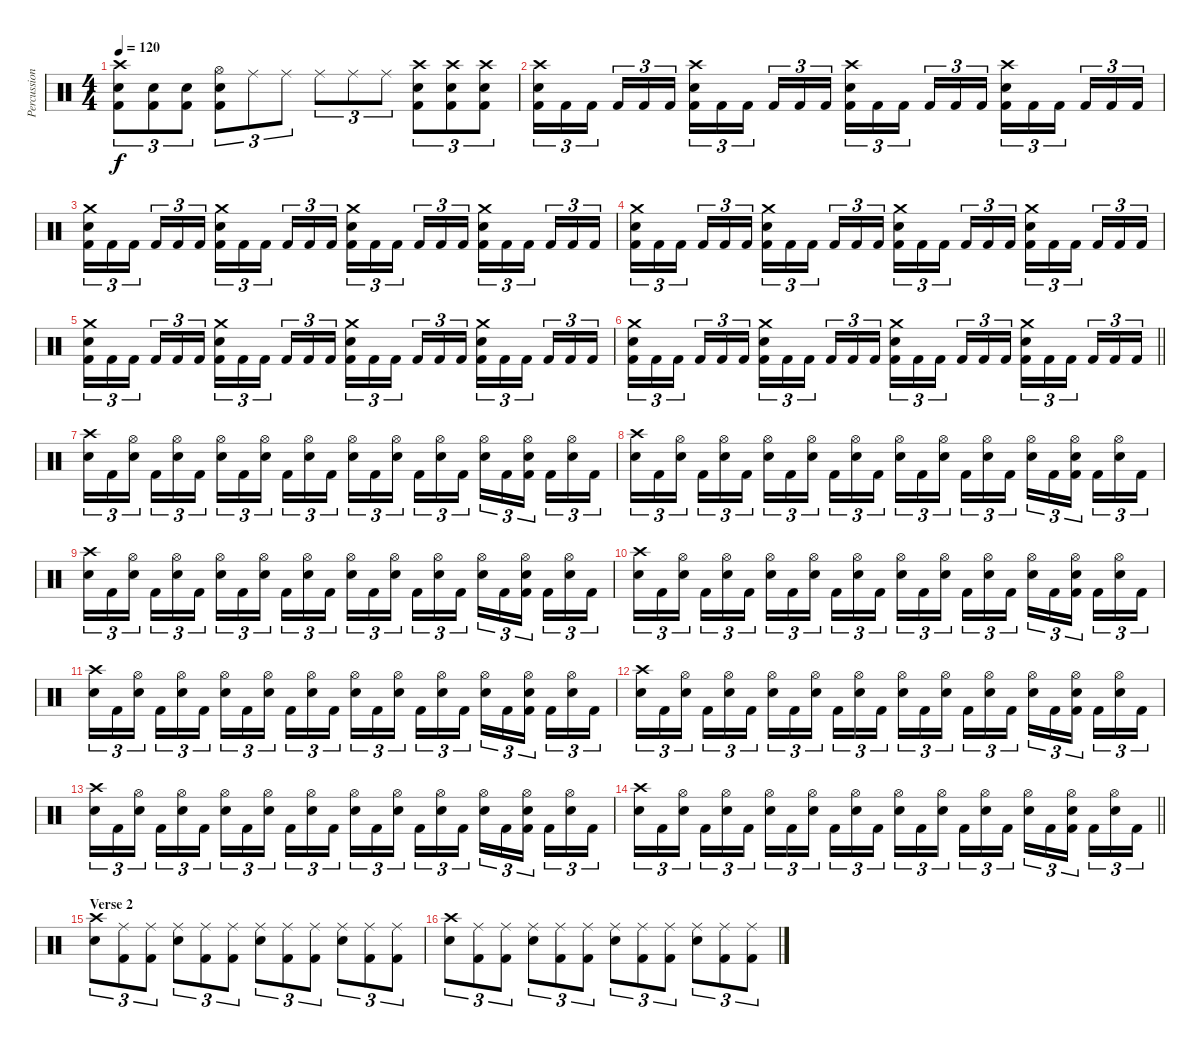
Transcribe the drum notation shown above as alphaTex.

\track ("Percussion" "Percussion") {instrument percussion}
\staff {score}
\articulation defaults
\ts (4 4)
\tempo 120
\clef neutral
\ks c
("Crash high (hit)" "Snare (hit) 2" "Kick (hit) 2").8{tu (3 2) dy f} ("Snare (hit) 2" "Kick (hit) 2").8{tu (3 2)} ("Snare (hit) 2" "Kick (hit) 2").8{tu (3 2)} ("Hi-Hat (open)" "Snare (hit) 2" "Kick (hit) 2").8{tu (3 2)} "Ride (middle)".8{tu (3 2)} "Ride (middle)".8{tu (3 2)} "Ride (middle)".8{tu (3 2)} "Ride (middle)".8{tu (3 2)} "Ride (middle)".8{tu (3 2)} ("Crash high (hit)" "Snare (hit) 2" "Kick (hit) 2").8{tu (3 2)} ("Crash high (hit)" "Snare (hit) 2" "Kick (hit) 2").8{tu (3 2)} ("Crash high (hit)" "Snare (hit) 2" "Kick (hit) 2").8{tu (3 2)} |
("Crash high (hit)" "Snare (hit) 2" "Kick (hit) 2").16{tu (3 2)} "Kick (hit) 2".16{tu (3 2)} "Kick (hit) 2".16{tu (3 2) beam splitsecondary} "Kick (hit) 2".16{tu (3 2)} "Kick (hit) 2".16{tu (3 2)} "Kick (hit) 2".16{tu (3 2)} ("Crash high (hit)" "Snare (hit) 2" "Kick (hit) 2").16{tu (3 2)} "Kick (hit) 2".16{tu (3 2)} "Kick (hit) 2".16{tu (3 2) beam splitsecondary} "Kick (hit) 2".16{tu (3 2)} "Kick (hit) 2".16{tu (3 2)} "Kick (hit) 2".16{tu (3 2)} ("Crash high (hit)" "Snare (hit) 2" "Kick (hit) 2").16{tu (3 2)} "Kick (hit) 2".16{tu (3 2)} "Kick (hit) 2".16{tu (3 2) beam splitsecondary} "Kick (hit) 2".16{tu (3 2)} "Kick (hit) 2".16{tu (3 2)} "Kick (hit) 2".16{tu (3 2)} ("Crash high (hit)" "Snare (hit) 2" "Kick (hit) 2").16{tu (3 2)} "Kick (hit) 2".16{tu (3 2)} "Kick (hit) 2".16{tu (3 2) beam splitsecondary} "Kick (hit) 2".16{tu (3 2)} "Kick (hit) 2".16{tu (3 2)} "Kick (hit) 2".16{tu (3 2)} |
("Crash medium (hit)" "Snare (hit) 2" "Kick (hit) 2").16{tu (3 2)} "Kick (hit) 2".16{tu (3 2)} "Kick (hit) 2".16{tu (3 2) beam splitsecondary} "Kick (hit) 2".16{tu (3 2)} "Kick (hit) 2".16{tu (3 2)} "Kick (hit) 2".16{tu (3 2)} ("Crash medium (hit)" "Snare (hit) 2" "Kick (hit) 2").16{tu (3 2)} "Kick (hit) 2".16{tu (3 2)} "Kick (hit) 2".16{tu (3 2) beam splitsecondary} "Kick (hit) 2".16{tu (3 2)} "Kick (hit) 2".16{tu (3 2)} "Kick (hit) 2".16{tu (3 2)} ("Crash medium (hit)" "Snare (hit) 2" "Kick (hit) 2").16{tu (3 2)} "Kick (hit) 2".16{tu (3 2)} "Kick (hit) 2".16{tu (3 2) beam splitsecondary} "Kick (hit) 2".16{tu (3 2)} "Kick (hit) 2".16{tu (3 2)} "Kick (hit) 2".16{tu (3 2)} ("Crash medium (hit)" "Snare (hit) 2" "Kick (hit) 2").16{tu (3 2)} "Kick (hit) 2".16{tu (3 2)} "Kick (hit) 2".16{tu (3 2) beam splitsecondary} "Kick (hit) 2".16{tu (3 2)} "Kick (hit) 2".16{tu (3 2)} "Kick (hit) 2".16{tu (3 2)} |
("Crash medium (hit)" "Snare (hit) 2" "Kick (hit) 2").16{tu (3 2)} "Kick (hit) 2".16{tu (3 2)} "Kick (hit) 2".16{tu (3 2) beam splitsecondary} "Kick (hit) 2".16{tu (3 2)} "Kick (hit) 2".16{tu (3 2)} "Kick (hit) 2".16{tu (3 2)} ("Crash medium (hit)" "Snare (hit) 2" "Kick (hit) 2").16{tu (3 2)} "Kick (hit) 2".16{tu (3 2)} "Kick (hit) 2".16{tu (3 2) beam splitsecondary} "Kick (hit) 2".16{tu (3 2)} "Kick (hit) 2".16{tu (3 2)} "Kick (hit) 2".16{tu (3 2)} ("Crash medium (hit)" "Snare (hit) 2" "Kick (hit) 2").16{tu (3 2)} "Kick (hit) 2".16{tu (3 2)} "Kick (hit) 2".16{tu (3 2) beam splitsecondary} "Kick (hit) 2".16{tu (3 2)} "Kick (hit) 2".16{tu (3 2)} "Kick (hit) 2".16{tu (3 2)} ("Crash medium (hit)" "Snare (hit) 2" "Kick (hit) 2").16{tu (3 2)} "Kick (hit) 2".16{tu (3 2)} "Kick (hit) 2".16{tu (3 2) beam splitsecondary} "Kick (hit) 2".16{tu (3 2)} "Kick (hit) 2".16{tu (3 2)} "Kick (hit) 2".16{tu (3 2)} |
("Crash medium (hit)" "Snare (hit) 2" "Kick (hit) 2").16{tu (3 2)} "Kick (hit) 2".16{tu (3 2)} "Kick (hit) 2".16{tu (3 2) beam splitsecondary} "Kick (hit) 2".16{tu (3 2)} "Kick (hit) 2".16{tu (3 2)} "Kick (hit) 2".16{tu (3 2)} ("Crash medium (hit)" "Snare (hit) 2" "Kick (hit) 2").16{tu (3 2)} "Kick (hit) 2".16{tu (3 2)} "Kick (hit) 2".16{tu (3 2) beam splitsecondary} "Kick (hit) 2".16{tu (3 2)} "Kick (hit) 2".16{tu (3 2)} "Kick (hit) 2".16{tu (3 2)} ("Crash medium (hit)" "Snare (hit) 2" "Kick (hit) 2").16{tu (3 2)} "Kick (hit) 2".16{tu (3 2)} "Kick (hit) 2".16{tu (3 2) beam splitsecondary} "Kick (hit) 2".16{tu (3 2)} "Kick (hit) 2".16{tu (3 2)} "Kick (hit) 2".16{tu (3 2)} ("Crash medium (hit)" "Snare (hit) 2" "Kick (hit) 2").16{tu (3 2)} "Kick (hit) 2".16{tu (3 2)} "Kick (hit) 2".16{tu (3 2) beam splitsecondary} "Kick (hit) 2".16{tu (3 2)} "Kick (hit) 2".16{tu (3 2)} "Kick (hit) 2".16{tu (3 2)} |
\barLineRight lightlight
("Crash medium (hit)" "Snare (hit) 2" "Kick (hit) 2").16{tu (3 2)} "Kick (hit) 2".16{tu (3 2)} "Kick (hit) 2".16{tu (3 2) beam splitsecondary} "Kick (hit) 2".16{tu (3 2)} "Kick (hit) 2".16{tu (3 2)} "Kick (hit) 2".16{tu (3 2)} ("Crash medium (hit)" "Snare (hit) 2" "Kick (hit) 2").16{tu (3 2)} "Kick (hit) 2".16{tu (3 2)} "Kick (hit) 2".16{tu (3 2) beam splitsecondary} "Kick (hit) 2".16{tu (3 2)} "Kick (hit) 2".16{tu (3 2)} "Kick (hit) 2".16{tu (3 2)} ("Crash medium (hit)" "Snare (hit) 2" "Kick (hit) 2").16{tu (3 2)} "Kick (hit) 2".16{tu (3 2)} "Kick (hit) 2".16{tu (3 2) beam splitsecondary} "Kick (hit) 2".16{tu (3 2)} "Kick (hit) 2".16{tu (3 2)} "Kick (hit) 2".16{tu (3 2)} ("Crash medium (hit)" "Snare (hit) 2" "Kick (hit) 2").16{tu (3 2)} "Kick (hit) 2".16{tu (3 2)} "Kick (hit) 2".16{tu (3 2) beam splitsecondary} "Kick (hit) 2".16{tu (3 2)} "Kick (hit) 2".16{tu (3 2)} "Kick (hit) 2".16{tu (3 2)} |
\section ("" "")
("Crash high (hit)" "Snare (hit) 2").16{tu (3 2)} "Kick (hit) 2".16{tu (3 2)} ("Hi-Hat (open)" "Snare (hit) 2").16{tu (3 2) beam splitsecondary} "Kick (hit) 2".16{tu (3 2)} ("Hi-Hat (open)" "Snare (hit) 2").16{tu (3 2)} "Kick (hit) 2".16{tu (3 2)} ("Hi-Hat (open)" "Snare (hit) 2").16{tu (3 2)} "Kick (hit) 2".16{tu (3 2)} ("Hi-Hat (open)" "Snare (hit) 2").16{tu (3 2) beam splitsecondary} "Kick (hit) 2".16{tu (3 2)} ("Hi-Hat (open)" "Snare (hit) 2").16{tu (3 2)} "Kick (hit) 2".16{tu (3 2)} ("Hi-Hat (open)" "Snare (hit) 2").16{tu (3 2)} "Kick (hit) 2".16{tu (3 2)} ("Hi-Hat (open)" "Snare (hit) 2").16{tu (3 2) beam splitsecondary} "Kick (hit) 2".16{tu (3 2)} ("Hi-Hat (open)" "Snare (hit) 2").16{tu (3 2)} "Kick (hit) 2".16{tu (3 2)} ("Hi-Hat (open)" "Snare (hit) 2").16{tu (3 2)} "Kick (hit) 2".16{tu (3 2)} ("Hi-Hat (open)" "Snare (hit) 2" "Kick (hit) 2").16{tu (3 2) beam splitsecondary} "Kick (hit) 2".16{tu (3 2)} ("Hi-Hat (open)" "Snare (hit) 2").16{tu (3 2)} "Kick (hit) 2".16{tu (3 2)} |
("Crash high (hit)" "Snare (hit) 2").16{tu (3 2)} "Kick (hit) 2".16{tu (3 2)} ("Hi-Hat (open)" "Snare (hit) 2").16{tu (3 2) beam splitsecondary} "Kick (hit) 2".16{tu (3 2)} ("Hi-Hat (open)" "Snare (hit) 2").16{tu (3 2)} "Kick (hit) 2".16{tu (3 2)} ("Hi-Hat (open)" "Snare (hit) 2").16{tu (3 2)} "Kick (hit) 2".16{tu (3 2)} ("Hi-Hat (open)" "Snare (hit) 2").16{tu (3 2) beam splitsecondary} "Kick (hit) 2".16{tu (3 2)} ("Hi-Hat (open)" "Snare (hit) 2").16{tu (3 2)} "Kick (hit) 2".16{tu (3 2)} ("Hi-Hat (open)" "Snare (hit) 2").16{tu (3 2)} "Kick (hit) 2".16{tu (3 2)} ("Hi-Hat (open)" "Snare (hit) 2").16{tu (3 2) beam splitsecondary} "Kick (hit) 2".16{tu (3 2)} ("Hi-Hat (open)" "Snare (hit) 2").16{tu (3 2)} "Kick (hit) 2".16{tu (3 2)} ("Hi-Hat (open)" "Snare (hit) 2").16{tu (3 2)} "Kick (hit) 2".16{tu (3 2)} ("Hi-Hat (open)" "Snare (hit) 2" "Kick (hit) 2").16{tu (3 2) beam splitsecondary} "Kick (hit) 2".16{tu (3 2)} ("Hi-Hat (open)" "Snare (hit) 2").16{tu (3 2)} "Kick (hit) 2".16{tu (3 2)} |
("Crash high (hit)" "Snare (hit) 2").16{tu (3 2)} "Kick (hit) 2".16{tu (3 2)} ("Hi-Hat (open)" "Snare (hit) 2").16{tu (3 2) beam splitsecondary} "Kick (hit) 2".16{tu (3 2)} ("Hi-Hat (open)" "Snare (hit) 2").16{tu (3 2)} "Kick (hit) 2".16{tu (3 2)} ("Hi-Hat (open)" "Snare (hit) 2").16{tu (3 2)} "Kick (hit) 2".16{tu (3 2)} ("Hi-Hat (open)" "Snare (hit) 2").16{tu (3 2) beam splitsecondary} "Kick (hit) 2".16{tu (3 2)} ("Hi-Hat (open)" "Snare (hit) 2").16{tu (3 2)} "Kick (hit) 2".16{tu (3 2)} ("Hi-Hat (open)" "Snare (hit) 2").16{tu (3 2)} "Kick (hit) 2".16{tu (3 2)} ("Hi-Hat (open)" "Snare (hit) 2").16{tu (3 2) beam splitsecondary} "Kick (hit) 2".16{tu (3 2)} ("Hi-Hat (open)" "Snare (hit) 2").16{tu (3 2)} "Kick (hit) 2".16{tu (3 2)} ("Hi-Hat (open)" "Snare (hit) 2").16{tu (3 2)} "Kick (hit) 2".16{tu (3 2)} ("Hi-Hat (open)" "Snare (hit) 2" "Kick (hit) 2").16{tu (3 2) beam splitsecondary} "Kick (hit) 2".16{tu (3 2)} ("Hi-Hat (open)" "Snare (hit) 2").16{tu (3 2)} "Kick (hit) 2".16{tu (3 2)} |
("Crash high (hit)" "Snare (hit) 2").16{tu (3 2)} "Kick (hit) 2".16{tu (3 2)} ("Hi-Hat (open)" "Snare (hit) 2").16{tu (3 2) beam splitsecondary} "Kick (hit) 2".16{tu (3 2)} ("Hi-Hat (open)" "Snare (hit) 2").16{tu (3 2)} "Kick (hit) 2".16{tu (3 2)} ("Hi-Hat (open)" "Snare (hit) 2").16{tu (3 2)} "Kick (hit) 2".16{tu (3 2)} ("Hi-Hat (open)" "Snare (hit) 2").16{tu (3 2) beam splitsecondary} "Kick (hit) 2".16{tu (3 2)} ("Hi-Hat (open)" "Snare (hit) 2").16{tu (3 2)} "Kick (hit) 2".16{tu (3 2)} ("Hi-Hat (open)" "Snare (hit) 2").16{tu (3 2)} "Kick (hit) 2".16{tu (3 2)} ("Hi-Hat (open)" "Snare (hit) 2").16{tu (3 2) beam splitsecondary} "Kick (hit) 2".16{tu (3 2)} ("Hi-Hat (open)" "Snare (hit) 2").16{tu (3 2)} "Kick (hit) 2".16{tu (3 2)} ("Hi-Hat (open)" "Snare (hit) 2").16{tu (3 2)} "Kick (hit) 2".16{tu (3 2)} ("Hi-Hat (open)" "Snare (hit) 2" "Kick (hit) 2").16{tu (3 2) beam splitsecondary} "Kick (hit) 2".16{tu (3 2)} ("Hi-Hat (open)" "Snare (hit) 2").16{tu (3 2)} "Kick (hit) 2".16{tu (3 2)} |
("Crash high (hit)" "Snare (hit) 2").16{tu (3 2)} "Kick (hit) 2".16{tu (3 2)} ("Hi-Hat (open)" "Snare (hit) 2").16{tu (3 2) beam splitsecondary} "Kick (hit) 2".16{tu (3 2)} ("Hi-Hat (open)" "Snare (hit) 2").16{tu (3 2)} "Kick (hit) 2".16{tu (3 2)} ("Hi-Hat (open)" "Snare (hit) 2").16{tu (3 2)} "Kick (hit) 2".16{tu (3 2)} ("Hi-Hat (open)" "Snare (hit) 2").16{tu (3 2) beam splitsecondary} "Kick (hit) 2".16{tu (3 2)} ("Hi-Hat (open)" "Snare (hit) 2").16{tu (3 2)} "Kick (hit) 2".16{tu (3 2)} ("Hi-Hat (open)" "Snare (hit) 2").16{tu (3 2)} "Kick (hit) 2".16{tu (3 2)} ("Hi-Hat (open)" "Snare (hit) 2").16{tu (3 2) beam splitsecondary} "Kick (hit) 2".16{tu (3 2)} ("Hi-Hat (open)" "Snare (hit) 2").16{tu (3 2)} "Kick (hit) 2".16{tu (3 2)} ("Hi-Hat (open)" "Snare (hit) 2").16{tu (3 2)} "Kick (hit) 2".16{tu (3 2)} ("Hi-Hat (open)" "Snare (hit) 2" "Kick (hit) 2").16{tu (3 2) beam splitsecondary} "Kick (hit) 2".16{tu (3 2)} ("Hi-Hat (open)" "Snare (hit) 2").16{tu (3 2)} "Kick (hit) 2".16{tu (3 2)} |
("Crash high (hit)" "Snare (hit) 2").16{tu (3 2)} "Kick (hit) 2".16{tu (3 2)} ("Hi-Hat (open)" "Snare (hit) 2").16{tu (3 2) beam splitsecondary} "Kick (hit) 2".16{tu (3 2)} ("Hi-Hat (open)" "Snare (hit) 2").16{tu (3 2)} "Kick (hit) 2".16{tu (3 2)} ("Hi-Hat (open)" "Snare (hit) 2").16{tu (3 2)} "Kick (hit) 2".16{tu (3 2)} ("Hi-Hat (open)" "Snare (hit) 2").16{tu (3 2) beam splitsecondary} "Kick (hit) 2".16{tu (3 2)} ("Hi-Hat (open)" "Snare (hit) 2").16{tu (3 2)} "Kick (hit) 2".16{tu (3 2)} ("Hi-Hat (open)" "Snare (hit) 2").16{tu (3 2)} "Kick (hit) 2".16{tu (3 2)} ("Hi-Hat (open)" "Snare (hit) 2").16{tu (3 2) beam splitsecondary} "Kick (hit) 2".16{tu (3 2)} ("Hi-Hat (open)" "Snare (hit) 2").16{tu (3 2)} "Kick (hit) 2".16{tu (3 2)} ("Hi-Hat (open)" "Snare (hit) 2").16{tu (3 2)} "Kick (hit) 2".16{tu (3 2)} ("Hi-Hat (open)" "Snare (hit) 2" "Kick (hit) 2").16{tu (3 2) beam splitsecondary} "Kick (hit) 2".16{tu (3 2)} ("Hi-Hat (open)" "Snare (hit) 2").16{tu (3 2)} "Kick (hit) 2".16{tu (3 2)} |
("Crash high (hit)" "Snare (hit) 2").16{tu (3 2)} "Kick (hit) 2".16{tu (3 2)} ("Hi-Hat (open)" "Snare (hit) 2").16{tu (3 2) beam splitsecondary} "Kick (hit) 2".16{tu (3 2)} ("Hi-Hat (open)" "Snare (hit) 2").16{tu (3 2)} "Kick (hit) 2".16{tu (3 2)} ("Hi-Hat (open)" "Snare (hit) 2").16{tu (3 2)} "Kick (hit) 2".16{tu (3 2)} ("Hi-Hat (open)" "Snare (hit) 2").16{tu (3 2) beam splitsecondary} "Kick (hit) 2".16{tu (3 2)} ("Hi-Hat (open)" "Snare (hit) 2").16{tu (3 2)} "Kick (hit) 2".16{tu (3 2)} ("Hi-Hat (open)" "Snare (hit) 2").16{tu (3 2)} "Kick (hit) 2".16{tu (3 2)} ("Hi-Hat (open)" "Snare (hit) 2").16{tu (3 2) beam splitsecondary} "Kick (hit) 2".16{tu (3 2)} ("Hi-Hat (open)" "Snare (hit) 2").16{tu (3 2)} "Kick (hit) 2".16{tu (3 2)} ("Hi-Hat (open)" "Snare (hit) 2").16{tu (3 2)} "Kick (hit) 2".16{tu (3 2)} ("Hi-Hat (open)" "Snare (hit) 2" "Kick (hit) 2").16{tu (3 2) beam splitsecondary} "Kick (hit) 2".16{tu (3 2)} ("Hi-Hat (open)" "Snare (hit) 2").16{tu (3 2)} "Kick (hit) 2".16{tu (3 2)} |
\barLineRight lightlight
("Crash high (hit)" "Snare (hit) 2").16{tu (3 2)} "Kick (hit) 2".16{tu (3 2)} ("Hi-Hat (open)" "Snare (hit) 2").16{tu (3 2) beam splitsecondary} "Kick (hit) 2".16{tu (3 2)} ("Hi-Hat (open)" "Snare (hit) 2").16{tu (3 2)} "Kick (hit) 2".16{tu (3 2)} ("Hi-Hat (open)" "Snare (hit) 2").16{tu (3 2)} "Kick (hit) 2".16{tu (3 2)} ("Hi-Hat (open)" "Snare (hit) 2").16{tu (3 2) beam splitsecondary} "Kick (hit) 2".16{tu (3 2)} ("Hi-Hat (open)" "Snare (hit) 2").16{tu (3 2)} "Kick (hit) 2".16{tu (3 2)} ("Hi-Hat (open)" "Snare (hit) 2").16{tu (3 2)} "Kick (hit) 2".16{tu (3 2)} ("Hi-Hat (open)" "Snare (hit) 2").16{tu (3 2) beam splitsecondary} "Kick (hit) 2".16{tu (3 2)} ("Hi-Hat (open)" "Snare (hit) 2").16{tu (3 2)} "Kick (hit) 2".16{tu (3 2)} ("Hi-Hat (open)" "Snare (hit) 2").16{tu (3 2)} "Kick (hit) 2".16{tu (3 2)} ("Hi-Hat (open)" "Snare (hit) 2" "Kick (hit) 2").16{tu (3 2) beam splitsecondary} "Kick (hit) 2".16{tu (3 2)} ("Hi-Hat (open)" "Snare (hit) 2").16{tu (3 2)} "Kick (hit) 2".16{tu (3 2)} |
\section ("" "Verse 2")
("Crash high (hit)" "Snare (hit) 2").8{tu (3 2)} ("Ride (middle)" "Kick (hit) 2").8{tu (3 2)} ("Ride (middle)" "Kick (hit) 2").8{tu (3 2)} ("Ride (middle)" "Snare (hit) 2").8{tu (3 2)} ("Ride (middle)" "Kick (hit) 2").8{tu (3 2)} ("Ride (middle)" "Kick (hit) 2").8{tu (3 2)} ("Ride (middle)" "Snare (hit) 2").8{tu (3 2)} ("Ride (middle)" "Kick (hit) 2").8{tu (3 2)} ("Ride (middle)" "Kick (hit) 2").8{tu (3 2)} ("Ride (middle)" "Snare (hit) 2").8{tu (3 2)} ("Ride (middle)" "Kick (hit) 2").8{tu (3 2)} ("Ride (middle)" "Kick (hit) 2").8{tu (3 2)} |
("Crash high (hit)" "Snare (hit) 2").8{tu (3 2)} ("Ride (middle)" "Kick (hit) 2").8{tu (3 2)} ("Ride (middle)" "Kick (hit) 2").8{tu (3 2)} ("Ride (middle)" "Snare (hit) 2").8{tu (3 2)} ("Ride (middle)" "Kick (hit) 2").8{tu (3 2)} ("Ride (middle)" "Kick (hit) 2").8{tu (3 2)} ("Ride (middle)" "Snare (hit) 2").8{tu (3 2)} ("Ride (middle)" "Kick (hit) 2").8{tu (3 2)} ("Ride (middle)" "Kick (hit) 2").8{tu (3 2)} ("Ride (middle)" "Snare (hit) 2").8{tu (3 2)} ("Ride (middle)" "Kick (hit) 2").8{tu (3 2)} ("Ride (middle)" "Kick (hit) 2").8{tu (3 2)}
